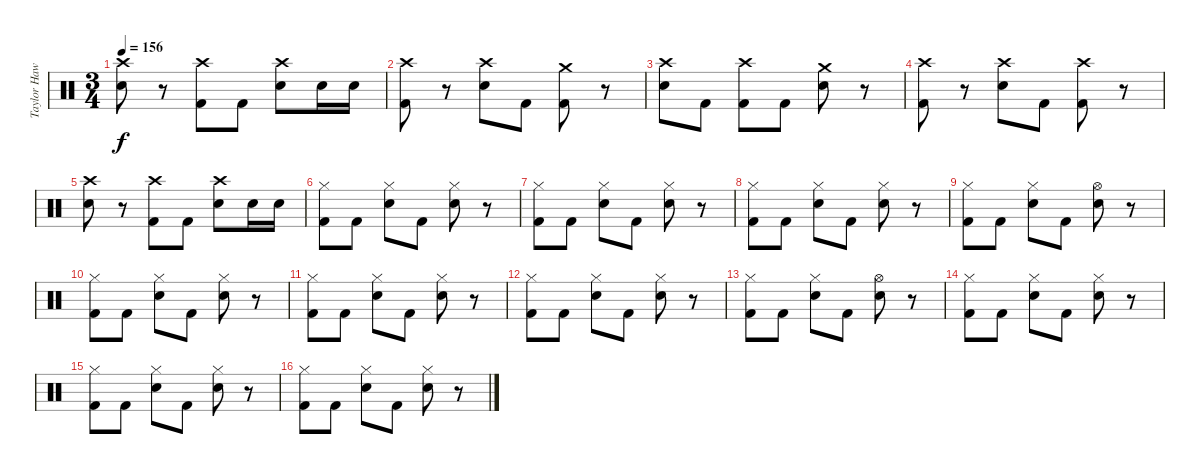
\track ("Taylor Hawkins" "Taylor Haw") {instrument percussion}
\staff {score}
\articulation defaults
\ts (3 4)
\tempo 156
\clef neutral
\ks c
("Crash high (hit)" "Electric Snare (hit)").8{dy f} r.8 ("Crash high (hit)" "Kick (hit) 2").8 "Kick (hit) 2".8 ("Crash high (hit)" "Electric Snare (hit)").8 "Electric Snare (hit)".16 "Electric Snare (hit)".16 |
("Crash high (hit)" "Kick (hit) 2").8 r.8 ("Crash high (hit)" "Electric Snare (hit)").8 "Kick (hit) 2".8 ("Crash medium (hit)" "Kick (hit) 2").8 r.8 |
("Crash high (hit)" "Electric Snare (hit)").8 "Kick (hit) 2".8 ("Crash high (hit)" "Kick (hit) 2").8 "Kick (hit) 2".8 ("Crash medium (hit)" "Electric Snare (hit)").8 r.8 |
("Crash high (hit)" "Kick (hit) 2").8 r.8 ("Crash high (hit)" "Electric Snare (hit)").8 "Kick (hit) 2".8 ("Crash high (hit)" "Kick (hit) 2").8 r.8 |
("Crash high (hit)" "Electric Snare (hit)").8 r.8 ("Crash high (hit)" "Kick (hit) 2").8 "Kick (hit) 2".8 ("Crash high (hit)" "Electric Snare (hit)").8 "Electric Snare (hit)".16 "Electric Snare (hit)".16 |
("Hi-Hat (closed)" "Kick (hit) 2").8 "Kick (hit) 2".8 ("Hi-Hat (closed)" "Electric Snare (hit)").8 "Kick (hit) 2".8 ("Hi-Hat (closed)" "Electric Snare (hit)").8 r.8 |
("Hi-Hat (closed)" "Kick (hit) 2").8 "Kick (hit) 2".8 ("Hi-Hat (closed)" "Electric Snare (hit)").8 "Kick (hit) 2".8 ("Hi-Hat (closed)" "Electric Snare (hit)").8 r.8 |
("Hi-Hat (closed)" "Kick (hit) 2").8 "Kick (hit) 2".8 ("Hi-Hat (closed)" "Electric Snare (hit)").8 "Kick (hit) 2".8 ("Hi-Hat (closed)" "Electric Snare (hit)").8 r.8 |
("Hi-Hat (closed)" "Kick (hit) 2").8 "Kick (hit) 2".8 ("Hi-Hat (closed)" "Electric Snare (hit)").8 "Kick (hit) 2".8 ("Hi-Hat (open)" "Electric Snare (hit)").8 r.8 |
("Hi-Hat (closed)" "Kick (hit) 2").8 "Kick (hit) 2".8 ("Hi-Hat (closed)" "Electric Snare (hit)").8 "Kick (hit) 2".8 ("Hi-Hat (closed)" "Electric Snare (hit)").8 r.8 |
("Hi-Hat (closed)" "Kick (hit) 2").8 "Kick (hit) 2".8 ("Hi-Hat (closed)" "Electric Snare (hit)").8 "Kick (hit) 2".8 ("Hi-Hat (closed)" "Electric Snare (hit)").8 r.8 |
("Hi-Hat (closed)" "Kick (hit) 2").8 "Kick (hit) 2".8 ("Hi-Hat (closed)" "Electric Snare (hit)").8 "Kick (hit) 2".8 ("Hi-Hat (closed)" "Electric Snare (hit)").8 r.8 |
("Hi-Hat (closed)" "Kick (hit) 2").8 "Kick (hit) 2".8 ("Hi-Hat (closed)" "Electric Snare (hit)").8 "Kick (hit) 2".8 ("Hi-Hat (open)" "Electric Snare (hit)").8 r.8 |
("Hi-Hat (closed)" "Kick (hit) 2").8 "Kick (hit) 2".8 ("Hi-Hat (closed)" "Electric Snare (hit)").8 "Kick (hit) 2".8 ("Hi-Hat (closed)" "Electric Snare (hit)").8 r.8 |
("Hi-Hat (closed)" "Kick (hit) 2").8 "Kick (hit) 2".8 ("Hi-Hat (closed)" "Electric Snare (hit)").8 "Kick (hit) 2".8 ("Hi-Hat (closed)" "Electric Snare (hit)").8 r.8 |
("Hi-Hat (closed)" "Kick (hit) 2").8 "Kick (hit) 2".8 ("Hi-Hat (closed)" "Electric Snare (hit)").8 "Kick (hit) 2".8 ("Hi-Hat (closed)" "Electric Snare (hit)").8 r.8
